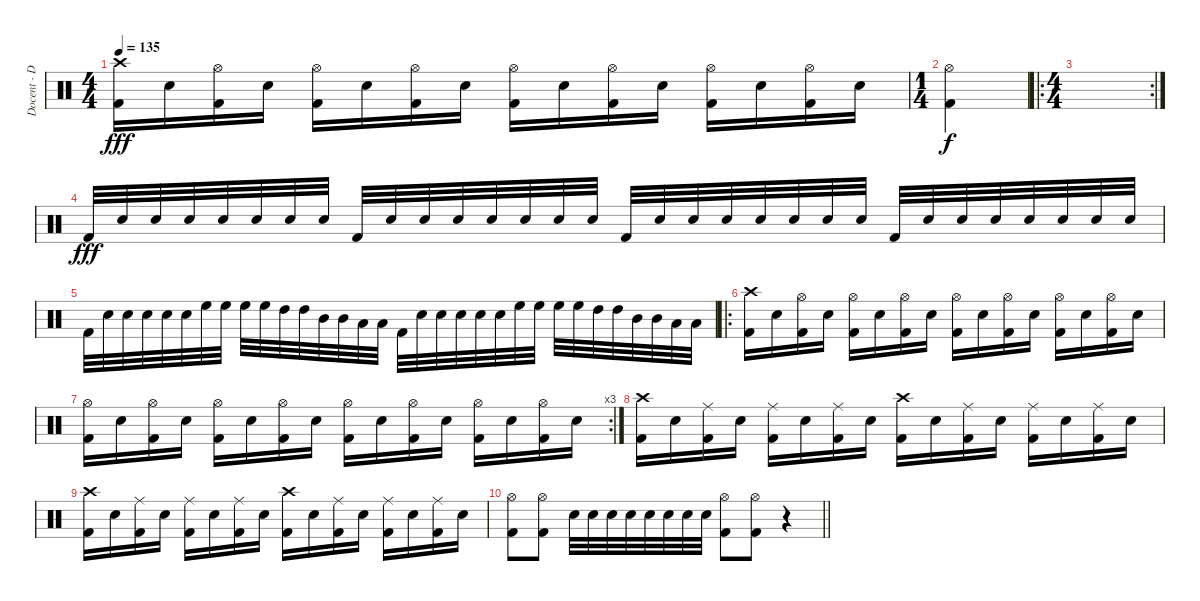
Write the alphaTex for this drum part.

\track ("Docent - Drums" "Docent - D") {instrument percussion}
\staff {score}
\articulation defaults
\ts (4 4)
\tempo 135
\clef neutral
\ks c
("Crash high (hit)" "Kick (hit) 2").16{dy fff} "Electric Snare (hit)".16 ("Hi-Hat (open)" "Kick (hit) 2").16 "Electric Snare (hit)".16 ("Hi-Hat (open)" "Kick (hit) 2").16 "Electric Snare (hit)".16 ("Hi-Hat (open)" "Kick (hit) 2").16 "Electric Snare (hit)".16 ("Hi-Hat (open)" "Kick (hit) 2").16 "Electric Snare (hit)".16 ("Hi-Hat (open)" "Kick (hit) 2").16 "Electric Snare (hit)".16 ("Hi-Hat (open)" "Kick (hit) 2").16 "Electric Snare (hit)".16 ("Hi-Hat (open)" "Kick (hit) 2").16 "Electric Snare (hit)".16 |
\ts (1 4)
("Hi-Hat (open)" "Kick (hit) 2").4{dy f} |
\ro
\rc 2
\ts (4 4)
|
"Kick (hit) 2".32{dy fff} "Electric Snare (hit)".32 "Electric Snare (hit)".32 "Electric Snare (hit)".32 "Electric Snare (hit)".32 "Electric Snare (hit)".32 "Electric Snare (hit)".32 "Electric Snare (hit)".32 "Kick (hit) 2".32 "Electric Snare (hit)".32 "Electric Snare (hit)".32 "Electric Snare (hit)".32 "Electric Snare (hit)".32 "Electric Snare (hit)".32 "Electric Snare (hit)".32 "Electric Snare (hit)".32 "Kick (hit) 2".32 "Electric Snare (hit)".32 "Electric Snare (hit)".32 "Electric Snare (hit)".32 "Electric Snare (hit)".32 "Electric Snare (hit)".32 "Electric Snare (hit)".32 "Electric Snare (hit)".32 "Kick (hit) 2".32 "Electric Snare (hit)".32 "Electric Snare (hit)".32 "Electric Snare (hit)".32 "Electric Snare (hit)".32 "Electric Snare (hit)".32 "Electric Snare (hit)".32 "Electric Snare (hit)".32 |
"Kick (hit) 2".32 "Electric Snare (hit)".32 "Electric Snare (hit)".32 "Electric Snare (hit)".32 "Electric Snare (hit)".32 "Electric Snare (hit)".32 "High Floor Tom (hit)".32 "High Floor Tom (hit)".32 "High Floor Tom (hit)".32 "High Floor Tom (hit)".32 "High Tom (hit)".32 "High Tom (hit)".32 "Mid Tom (hit)".32 "Mid Tom (hit)".32 "Low Tom (hit)".32 "Low Tom (hit)".32 "Kick (hit) 2".32 "Electric Snare (hit)".32 "Electric Snare (hit)".32 "Electric Snare (hit)".32 "Electric Snare (hit)".32 "Electric Snare (hit)".32 "High Floor Tom (hit)".32 "High Floor Tom (hit)".32 "High Floor Tom (hit)".32 "High Floor Tom (hit)".32 "High Tom (hit)".32 "High Tom (hit)".32 "Mid Tom (hit)".32 "Mid Tom (hit)".32 "Low Tom (hit)".32 "Low Tom (hit)".32 |
\ro
("Crash high (hit)" "Kick (hit) 2").16 "Electric Snare (hit)".16 ("Hi-Hat (open)" "Kick (hit) 2").16 "Electric Snare (hit)".16 ("Hi-Hat (open)" "Kick (hit) 2").16 "Electric Snare (hit)".16 ("Hi-Hat (open)" "Kick (hit) 2").16 "Electric Snare (hit)".16 ("Hi-Hat (open)" "Kick (hit) 2").16 "Electric Snare (hit)".16 ("Hi-Hat (open)" "Kick (hit) 2").16 "Electric Snare (hit)".16 ("Hi-Hat (open)" "Kick (hit) 2").16 "Electric Snare (hit)".16 ("Hi-Hat (open)" "Kick (hit) 2").16 "Electric Snare (hit)".16 |
\rc 3
("Hi-Hat (open)" "Kick (hit) 2").16 "Electric Snare (hit)".16 ("Hi-Hat (open)" "Kick (hit) 2").16 "Electric Snare (hit)".16 ("Hi-Hat (open)" "Kick (hit) 2").16 "Electric Snare (hit)".16 ("Hi-Hat (open)" "Kick (hit) 2").16 "Electric Snare (hit)".16 ("Hi-Hat (open)" "Kick (hit) 2").16 "Electric Snare (hit)".16 ("Hi-Hat (open)" "Kick (hit) 2").16 "Electric Snare (hit)".16 ("Hi-Hat (open)" "Kick (hit) 2").16 "Electric Snare (hit)".16 ("Hi-Hat (open)" "Kick (hit) 2").16 "Electric Snare (hit)".16 |
("Crash high (hit)" "Kick (hit) 2").16 "Electric Snare (hit)".16 ("Ride (middle)" "Kick (hit) 2").16 "Electric Snare (hit)".16 ("Ride (middle)" "Kick (hit) 2").16 "Electric Snare (hit)".16 ("Ride (middle)" "Kick (hit) 2").16 "Electric Snare (hit)".16 ("Crash high (hit)" "Kick (hit) 2").16 "Electric Snare (hit)".16 ("Ride (middle)" "Kick (hit) 2").16 "Electric Snare (hit)".16 ("Ride (middle)" "Kick (hit) 2").16 "Electric Snare (hit)".16 ("Ride (middle)" "Kick (hit) 2").16 "Electric Snare (hit)".16 |
("Crash high (hit)" "Kick (hit) 2").16 "Electric Snare (hit)".16 ("Ride (middle)" "Kick (hit) 2").16 "Electric Snare (hit)".16 ("Ride (middle)" "Kick (hit) 2").16 "Electric Snare (hit)".16 ("Ride (middle)" "Kick (hit) 2").16 "Electric Snare (hit)".16 ("Crash high (hit)" "Kick (hit) 2").16 "Electric Snare (hit)".16 ("Ride (middle)" "Kick (hit) 2").16 "Electric Snare (hit)".16 ("Ride (middle)" "Kick (hit) 2").16 "Electric Snare (hit)".16 ("Ride (middle)" "Kick (hit) 2").16 "Electric Snare (hit)".16 |
\barLineRight lightlight
("Hi-Hat (open)" "Kick (hit) 2").8 ("Hi-Hat (open)" "Kick (hit) 2").8 "Electric Snare (hit)".32 "Electric Snare (hit)".32 "Electric Snare (hit)".32 "Electric Snare (hit)".32 "Electric Snare (hit)".32 "Electric Snare (hit)".32 "Electric Snare (hit)".32 "Electric Snare (hit)".32 ("Hi-Hat (open)" "Kick (hit) 2").8 ("Hi-Hat (open)" "Kick (hit) 2").8 r.4
